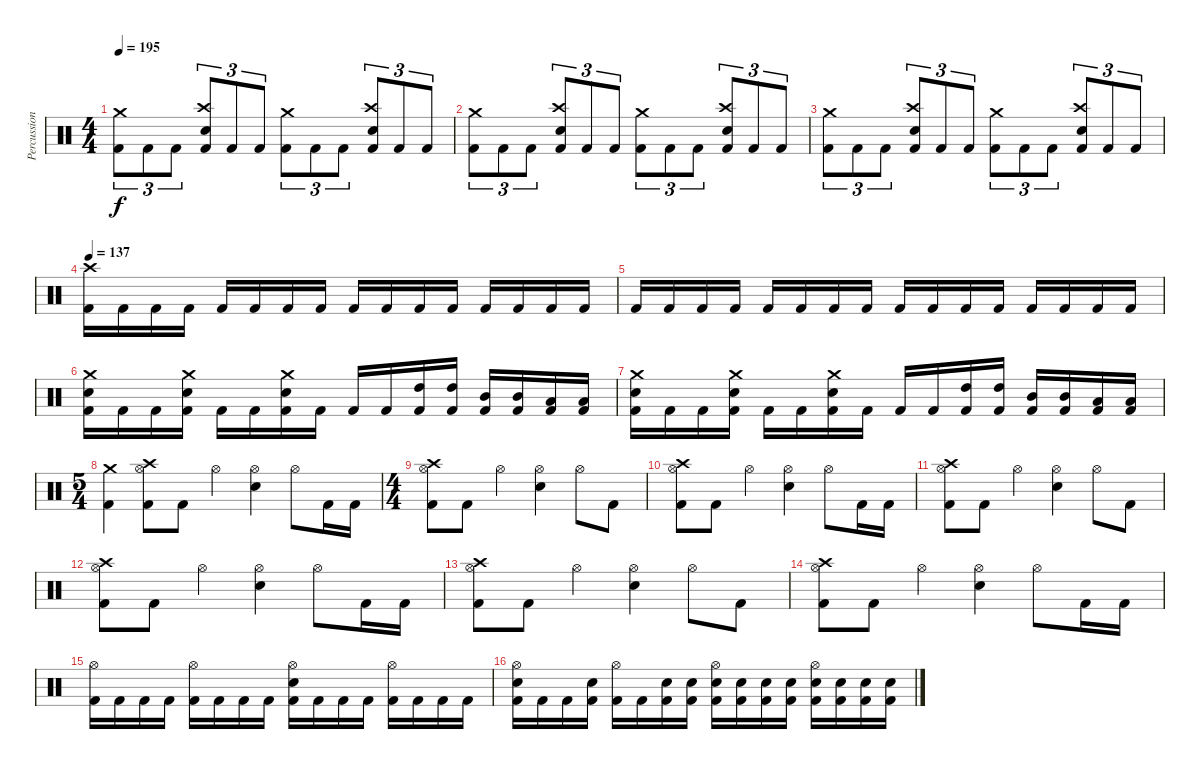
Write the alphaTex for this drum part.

\track ("Percussion" "Percussion") {instrument percussion}
\staff {score}
\articulation defaults
\ts (4 4)
\tempo 195
\clef neutral
\ks c
("Crash medium (hit)" "Kick (hit) 2").8{tu (3 2) dy f} "Kick (hit) 2".8{tu (3 2)} "Kick (hit) 2".8{tu (3 2)} ("Crash high (hit)" "Electric Snare (hit)" "Kick (hit) 2").8{tu (3 2)} "Kick (hit) 2".8{tu (3 2)} "Kick (hit) 2".8{tu (3 2)} ("Crash medium (hit)" "Kick (hit) 2").8{tu (3 2)} "Kick (hit) 2".8{tu (3 2)} "Kick (hit) 2".8{tu (3 2)} ("Crash high (hit)" "Electric Snare (hit)" "Kick (hit) 2").8{tu (3 2)} "Kick (hit) 2".8{tu (3 2)} "Kick (hit) 2".8{tu (3 2)} |
("Crash medium (hit)" "Kick (hit) 2").8{tu (3 2)} "Kick (hit) 2".8{tu (3 2)} "Kick (hit) 2".8{tu (3 2)} ("Crash high (hit)" "Electric Snare (hit)" "Kick (hit) 2").8{tu (3 2)} "Kick (hit) 2".8{tu (3 2)} "Kick (hit) 2".8{tu (3 2)} ("Crash medium (hit)" "Kick (hit) 2").8{tu (3 2)} "Kick (hit) 2".8{tu (3 2)} "Kick (hit) 2".8{tu (3 2)} ("Crash high (hit)" "Electric Snare (hit)" "Kick (hit) 2").8{tu (3 2)} "Kick (hit) 2".8{tu (3 2)} "Kick (hit) 2".8{tu (3 2)} |
("Crash medium (hit)" "Kick (hit) 2").8{tu (3 2)} "Kick (hit) 2".8{tu (3 2)} "Kick (hit) 2".8{tu (3 2)} ("Crash high (hit)" "Electric Snare (hit)" "Kick (hit) 2").8{tu (3 2)} "Kick (hit) 2".8{tu (3 2)} "Kick (hit) 2".8{tu (3 2)} ("Crash medium (hit)" "Kick (hit) 2").8{tu (3 2)} "Kick (hit) 2".8{tu (3 2)} "Kick (hit) 2".8{tu (3 2)} ("Crash high (hit)" "Electric Snare (hit)" "Kick (hit) 2").8{tu (3 2)} "Kick (hit) 2".8{tu (3 2)} "Kick (hit) 2".8{tu (3 2)} |
\tempo 137
("Crash high (hit)" "Kick (hit) 2").16 "Kick (hit) 2".16 "Kick (hit) 2".16 "Kick (hit) 2".16 "Kick (hit) 2".16 "Kick (hit) 2".16 "Kick (hit) 2".16 "Kick (hit) 2".16 "Kick (hit) 2".16 "Kick (hit) 2".16 "Kick (hit) 2".16 "Kick (hit) 2".16 "Kick (hit) 2".16 "Kick (hit) 2".16 "Kick (hit) 2".16 "Kick (hit) 2".16 |
"Kick (hit) 2".16 "Kick (hit) 2".16 "Kick (hit) 2".16 "Kick (hit) 2".16 "Kick (hit) 2".16 "Kick (hit) 2".16 "Kick (hit) 2".16 "Kick (hit) 2".16 "Kick (hit) 2".16 "Kick (hit) 2".16 "Kick (hit) 2".16 "Kick (hit) 2".16 "Kick (hit) 2".16 "Kick (hit) 2".16 "Kick (hit) 2".16 "Kick (hit) 2".16 |
("Crash medium (hit)" "Electric Snare (hit)" "Kick (hit) 2").16 "Kick (hit) 2".16 "Kick (hit) 2".16 ("Crash medium (hit)" "Electric Snare (hit)" "Kick (hit) 2").16 "Kick (hit) 2".16 "Kick (hit) 2".16 ("Crash medium (hit)" "Electric Snare (hit)" "Kick (hit) 2").16 "Kick (hit) 2".16 "Kick (hit) 2".16 "Kick (hit) 2".16 ("High Tom (hit)" "Kick (hit) 2").16 ("High Tom (hit)" "Kick (hit) 2").16 ("Mid Tom (hit)" "Kick (hit) 2").16 ("Mid Tom (hit)" "Kick (hit) 2").16 ("Low Tom (hit)" "Kick (hit) 2").16 ("Low Tom (hit)" "Kick (hit) 2").16 |
("Crash medium (hit)" "Electric Snare (hit)" "Kick (hit) 2").16 "Kick (hit) 2".16 "Kick (hit) 2".16 ("Crash medium (hit)" "Electric Snare (hit)" "Kick (hit) 2").16 "Kick (hit) 2".16 "Kick (hit) 2".16 ("Crash medium (hit)" "Electric Snare (hit)" "Kick (hit) 2").16 "Kick (hit) 2".16 "Kick (hit) 2".16 "Kick (hit) 2".16 ("High Tom (hit)" "Kick (hit) 2").16 ("High Tom (hit)" "Kick (hit) 2").16 ("Mid Tom (hit)" "Kick (hit) 2").16 ("Mid Tom (hit)" "Kick (hit) 2").16 ("Low Tom (hit)" "Kick (hit) 2").16 ("Low Tom (hit)" "Kick (hit) 2").16 |
\ts (5 4)
("Crash medium (hit)" "Kick (hit) 2").4 ("Crash high (hit)" "Hi-Hat (open)" "Kick (hit) 2").8 "Kick (hit) 2".8 "Hi-Hat (open)".4 ("Hi-Hat (open)" "Electric Snare (hit)").4 "Hi-Hat (open)".8 "Kick (hit) 2".16 "Kick (hit) 2".16 |
\ts (4 4)
("Crash high (hit)" "Hi-Hat (open)" "Kick (hit) 2").8 "Kick (hit) 2".8 "Hi-Hat (open)".4 ("Hi-Hat (open)" "Electric Snare (hit)").4 "Hi-Hat (open)".8 "Kick (hit) 2".8 |
("Crash high (hit)" "Hi-Hat (open)" "Kick (hit) 2").8 "Kick (hit) 2".8 "Hi-Hat (open)".4 ("Hi-Hat (open)" "Electric Snare (hit)").4 "Hi-Hat (open)".8 "Kick (hit) 2".16 "Kick (hit) 2".16 |
("Crash high (hit)" "Hi-Hat (open)" "Kick (hit) 2").8 "Kick (hit) 2".8 "Hi-Hat (open)".4 ("Hi-Hat (open)" "Electric Snare (hit)").4 "Hi-Hat (open)".8 "Kick (hit) 2".8 |
("Crash high (hit)" "Hi-Hat (open)" "Kick (hit) 2").8 "Kick (hit) 2".8 "Hi-Hat (open)".4 ("Hi-Hat (open)" "Electric Snare (hit)").4 "Hi-Hat (open)".8 "Kick (hit) 2".16 "Kick (hit) 2".16 |
("Crash high (hit)" "Hi-Hat (open)" "Kick (hit) 2").8 "Kick (hit) 2".8 "Hi-Hat (open)".4 ("Hi-Hat (open)" "Electric Snare (hit)").4 "Hi-Hat (open)".8 "Kick (hit) 2".8 |
("Crash high (hit)" "Hi-Hat (open)" "Kick (hit) 2").8 "Kick (hit) 2".8 "Hi-Hat (open)".4 ("Hi-Hat (open)" "Electric Snare (hit)").4 "Hi-Hat (open)".8 "Kick (hit) 2".16 "Kick (hit) 2".16 |
("Hi-Hat (open)" "Kick (hit) 2").16 "Kick (hit) 2".16 "Kick (hit) 2".16 "Kick (hit) 2".16 ("Hi-Hat (open)" "Kick (hit) 2").16 "Kick (hit) 2".16 "Kick (hit) 2".16 "Kick (hit) 2".16 ("Hi-Hat (open)" "Electric Snare (hit)" "Kick (hit) 2").16 "Kick (hit) 2".16 "Kick (hit) 2".16 "Kick (hit) 2".16 ("Hi-Hat (open)" "Kick (hit) 2").16 "Kick (hit) 2".16 "Kick (hit) 2".16 "Kick (hit) 2".16 |
("Hi-Hat (open)" "Electric Snare (hit)" "Kick (hit) 2").16 "Kick (hit) 2".16 "Kick (hit) 2".16 ("Electric Snare (hit)" "Kick (hit) 2").16 ("Hi-Hat (open)" "Kick (hit) 2").16 "Kick (hit) 2".16 ("Electric Snare (hit)" "Kick (hit) 2").16 ("Electric Snare (hit)" "Kick (hit) 2").16 ("Hi-Hat (open)" "Electric Snare (hit)" "Kick (hit) 2").16 ("Electric Snare (hit)" "Kick (hit) 2").16 ("Electric Snare (hit)" "Kick (hit) 2").16 ("Electric Snare (hit)" "Kick (hit) 2").16 ("Hi-Hat (open)" "Electric Snare (hit)" "Kick (hit) 2").16 ("Electric Snare (hit)" "Kick (hit) 2").16 ("Electric Snare (hit)" "Kick (hit) 2").16 ("Electric Snare (hit)" "Kick (hit) 2").16
